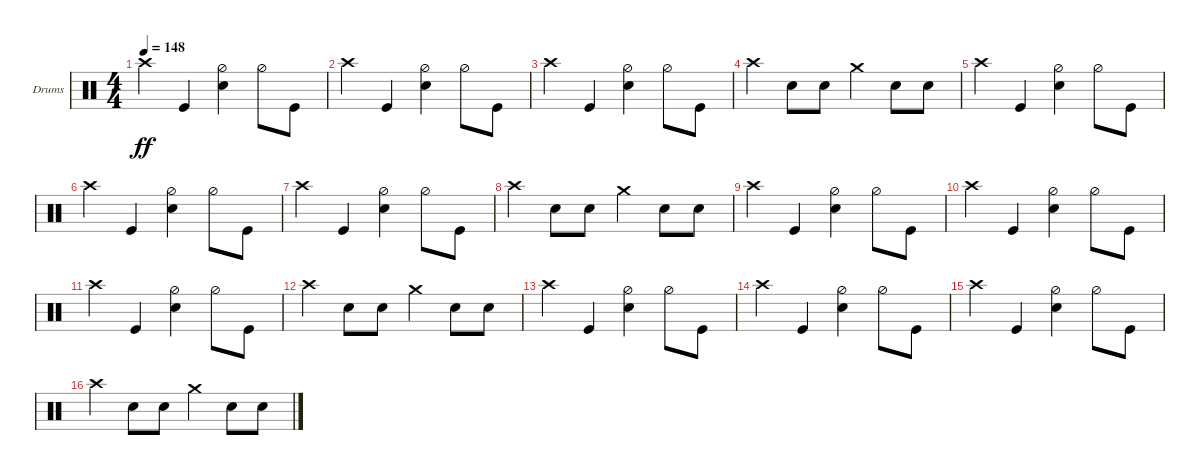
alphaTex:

\defaultSystemsLayout 4
\bracketExtendMode groupsimilarinstruments
\firstSystemTrackNameOrientation horizontal
\otherSystemsTrackNameOrientation horizontal
\track ("Drumkit" "Drums") {instrument percussion}
\staff {score}
\articulation defaults
\ts (4 4)
\tempo 148
\clef neutral
\scale
0.333333
\ks c "Crash high (hit)".4{dy ff} "Kick (hit)".4
("Hi-Hat (half)" "Snare (hit) 2").4 "Hi-Hat (half)".8 "Kick (hit)".8 |
\scale
0.333333 "Crash high (hit)".4 "Kick (hit)".4 ("Hi-Hat (half)" "Snare (hit) 2").4 "Hi-Hat (half)".8 "Kick (hit)".8 |
\scale
0.333333 "Crash high (hit)".4 "Kick (hit)".4 ("Hi-Hat (half)" "Snare (hit) 2").4 "Hi-Hat (half)".8 "Kick (hit)".8 |
\scale
0.333333 "Crash high (hit)".4 "Snare (hit) 2".8 "Snare (hit) 2".8 "Crash medium (hit)".4 "Snare (hit) 2".8 "Snare (hit) 2".8 |
\scale
0.333333 "Crash high (hit)".4 "Kick (hit)".4 ("Hi-Hat (half)" "Snare (hit) 2").4 "Hi-Hat (half)".8 "Kick (hit)".8 |
\scale
0.333333 "Crash high (hit)".4 "Kick (hit)".4 ("Hi-Hat (half)" "Snare (hit) 2").4 "Hi-Hat (half)".8 "Kick (hit)".8 |
\scale
0.333333 "Crash high (hit)".4 "Kick (hit)".4 ("Hi-Hat (half)" "Snare (hit) 2").4 "Hi-Hat (half)".8 "Kick (hit)".8 |
\scale
0.333333 "Crash high (hit)".4 "Snare (hit) 2".8 "Snare (hit) 2".8 "Crash medium (hit)".4 "Snare (hit) 2".8 "Snare (hit) 2".8 |
\scale
0.333333 "Crash high (hit)".4 "Kick (hit)".4 ("Hi-Hat (half)" "Snare (hit) 2").4 "Hi-Hat (half)".8 "Kick (hit)".8 |
\scale
0.333333 "Crash high (hit)".4 "Kick (hit)".4 ("Hi-Hat (half)" "Snare (hit) 2").4 "Hi-Hat (half)".8 "Kick (hit)".8 |
\scale
0.333333 "Crash high (hit)".4 "Kick (hit)".4 ("Hi-Hat (half)" "Snare (hit) 2").4 "Hi-Hat (half)".8 "Kick (hit)".8 |
\scale
0.333333 "Crash high (hit)".4 "Snare (hit) 2".8 "Snare (hit) 2".8 "Crash medium (hit)".4 "Snare (hit) 2".8 "Snare (hit) 2".8 |
\scale
0.333333 "Crash high (hit)".4 "Kick (hit)".4 ("Hi-Hat (half)" "Snare (hit) 2").4 "Hi-Hat (half)".8 "Kick (hit)".8 |
\scale
0.333333 "Crash high (hit)".4 "Kick (hit)".4 ("Hi-Hat (half)" "Snare (hit) 2").4 "Hi-Hat (half)".8 "Kick (hit)".8 |
\scale
0.333333 "Crash high (hit)".4 "Kick (hit)".4 ("Hi-Hat (half)" "Snare (hit) 2").4 "Hi-Hat (half)".8 "Kick (hit)".8 |
\scale
0.333333 "Crash high (hit)".4 "Snare (hit) 2".8 "Snare (hit) 2".8 "Crash medium (hit)".4 "Snare (hit) 2".8 "Snare (hit) 2".8
